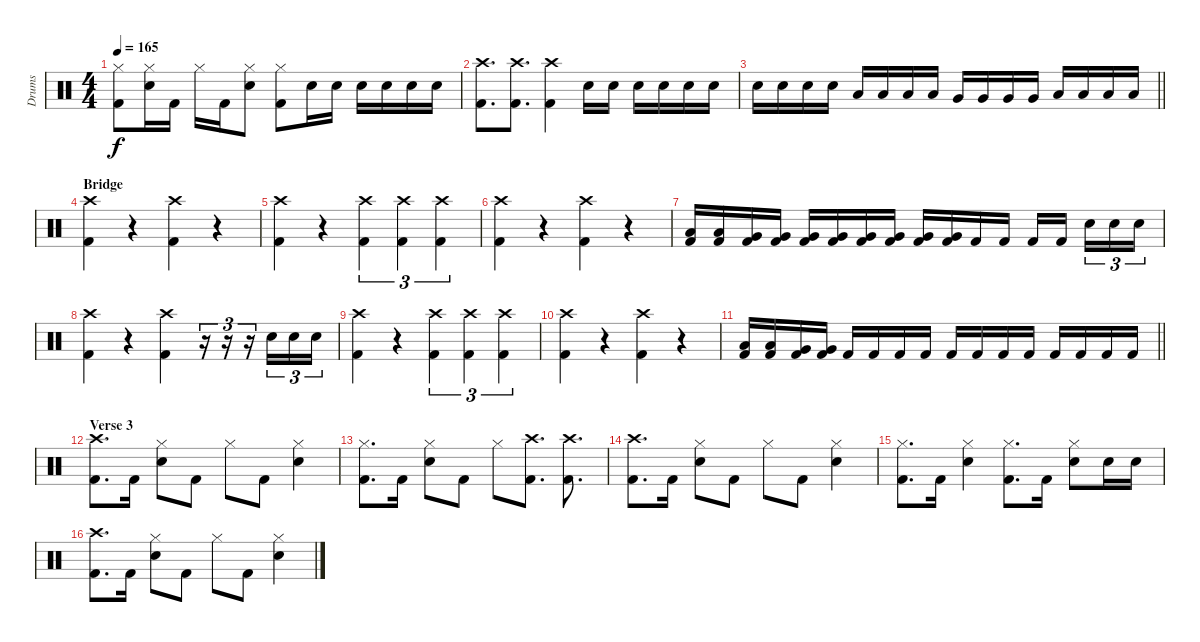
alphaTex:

\track ("Drums" "Drums") {instrument percussion}
\staff {score}
\articulation defaults
\ts (4 4)
\tempo 165
\clef neutral
\ks c
("Hi-Hat (closed)" "Kick (hit) 2").8{dy f} ("Hi-Hat (closed)" "Snare (hit) 2").16 "Kick (hit) 2".16 "Hi-Hat (closed)".16 "Kick (hit) 2".16 ("Hi-Hat (closed)" "Snare (hit) 2").8 ("Hi-Hat (closed)" "Kick (hit) 2").8 "Snare (hit) 2".16 "Snare (hit) 2".16 "Snare (hit) 2".16 "Snare (hit) 2".16 "Snare (hit) 2".16 "Snare (hit) 2".16 |
("Crash high (hit)" "Kick (hit) 2").8{d} ("Crash high (hit)" "Kick (hit) 2").8{d} ("Crash high (hit)" "Kick (hit) 2").4 "Snare (hit) 2".16 "Snare (hit) 2".16 "Snare (hit) 2".16 "Snare (hit) 2".16 "Snare (hit) 2".16 "Snare (hit) 2".16 |
\barLineRight lightlight "Snare (hit) 2".16 "Snare (hit) 2".16 "Snare (hit) 2".16 "Snare (hit) 2".16 "Low Tom (hit)".16 "Low Tom (hit)".16 "Low Tom (hit)".16 "Low Tom (hit)".16 "Very Low Tom (hit)".16 "Very Low Tom (hit)".16 "Very Low Tom (hit)".16 "Very Low Tom (hit)".16 "Low Floor Tom (hit)".16 "Low Floor Tom (hit)".16 "Low Floor Tom (hit)".16 "Low Floor Tom (hit)".16
|
\section ("" "Bridge")
("Crash high (hit)" "Kick (hit) 2").4 r.4 ("Crash high (hit)" "Kick (hit) 2").4 r.4 |
("Crash high (hit)" "Kick (hit) 2").4 r.4 ("Crash high (hit)" "Kick (hit) 2").4{tu (3 2)} ("Crash high (hit)" "Kick (hit) 2").4{tu (3 2)} ("Crash high (hit)" "Kick (hit) 2").4{tu (3 2)} |
("Crash high (hit)" "Kick (hit) 2").4 r.4 ("Crash high (hit)" "Kick (hit) 2").4 r.4 |
("Low Tom (hit)" "Kick (hit) 2").16 ("Low Tom (hit)" "Kick (hit) 2").16 ("Very Low Tom (hit)" "Kick (hit) 2").16 ("Very Low Tom (hit)" "Kick (hit) 2").16 ("Very Low Tom (hit)" "Kick (hit) 2").16 ("Very Low Tom (hit)" "Kick (hit) 2").16 ("Very Low Tom (hit)" "Kick (hit) 2").16 ("Very Low Tom (hit)" "Kick (hit) 2").16 ("Very Low Tom (hit)" "Kick (hit) 2").16 ("Very Low Tom (hit)" "Kick (hit) 2").16 "Kick (hit) 2".16 "Kick (hit) 2".16 "Kick (hit) 2".16 "Kick (hit) 2".16{beam splitsecondary} "Snare (hit) 2".16{tu (3 2)} "Snare (hit) 2".16{tu (3 2)} "Snare (hit) 2".16{tu (3 2)} |
("Crash high (hit)" "Kick (hit) 2").4 r.4 ("Crash high (hit)" "Kick (hit) 2").4 r.16{tu (3 2)} r.16{tu (3 2)} r.16{tu (3 2)} "Snare (hit) 2".16{tu (3 2)} "Snare (hit) 2".16{tu (3 2)} "Snare (hit) 2".16{tu (3 2)} |
("Crash high (hit)" "Kick (hit) 2").4 r.4 ("Crash high (hit)" "Kick (hit) 2").4{tu (3 2)} ("Crash high (hit)" "Kick (hit) 2").4{tu (3 2)} ("Crash high (hit)" "Kick (hit) 2").4{tu (3 2)} |
("Crash high (hit)" "Kick (hit) 2").4 r.4 ("Crash high (hit)" "Kick (hit) 2").4 r.4 |
\barLineRight lightlight
("Low Tom (hit)" "Kick (hit) 2").16 ("Low Tom (hit)" "Kick (hit) 2").16 ("Very Low Tom (hit)" "Kick (hit) 2").16 ("Very Low Tom (hit)" "Kick (hit) 2").16 "Kick (hit) 2".16 "Kick (hit) 2".16 "Kick (hit) 2".16 "Kick (hit) 2".16 "Kick (hit) 2".16 "Kick (hit) 2".16 "Kick (hit) 2".16 "Kick (hit) 2".16 "Kick (hit) 2".16 "Kick (hit) 2".16 "Kick (hit) 2".16 "Kick (hit) 2".16 |
\section ("" "Verse 3")
("Crash high (hit)" "Kick (hit) 2").8{d} "Kick (hit) 2".16 ("Hi-Hat (closed)" "Snare (hit) 2").8 "Kick (hit) 2".8 "Hi-Hat (closed)".8 "Kick (hit) 2".8 ("Hi-Hat (closed)" "Snare (hit) 2").4 |
("Hi-Hat (closed)" "Kick (hit) 2").8{d} "Kick (hit) 2".16 ("Hi-Hat (closed)" "Snare (hit) 2").8 "Kick (hit) 2".8 "Hi-Hat (closed)".8 ("Crash high (hit)" "Kick (hit) 2").8{d} ("Crash high (hit)" "Kick (hit) 2").8{d} |
("Crash high (hit)" "Kick (hit) 2").8{d} "Kick (hit) 2".16 ("Hi-Hat (closed)" "Snare (hit) 2").8 "Kick (hit) 2".8 "Hi-Hat (closed)".8 "Kick (hit) 2".8 ("Hi-Hat (closed)" "Snare (hit) 2").4 |
("Hi-Hat (closed)" "Kick (hit) 2").8{d} "Kick (hit) 2".16 ("Hi-Hat (closed)" "Snare (hit) 2").4 ("Hi-Hat (closed)" "Kick (hit) 2").8{d} "Kick (hit) 2".16 ("Hi-Hat (closed)" "Snare (hit) 2").8 "Snare (hit) 2".16 "Snare (hit) 2".16 |
("Crash high (hit)" "Kick (hit) 2").8{d} "Kick (hit) 2".16 ("Hi-Hat (closed)" "Snare (hit) 2").8 "Kick (hit) 2".8 "Hi-Hat (closed)".8 "Kick (hit) 2".8 ("Hi-Hat (closed)" "Snare (hit) 2").4
